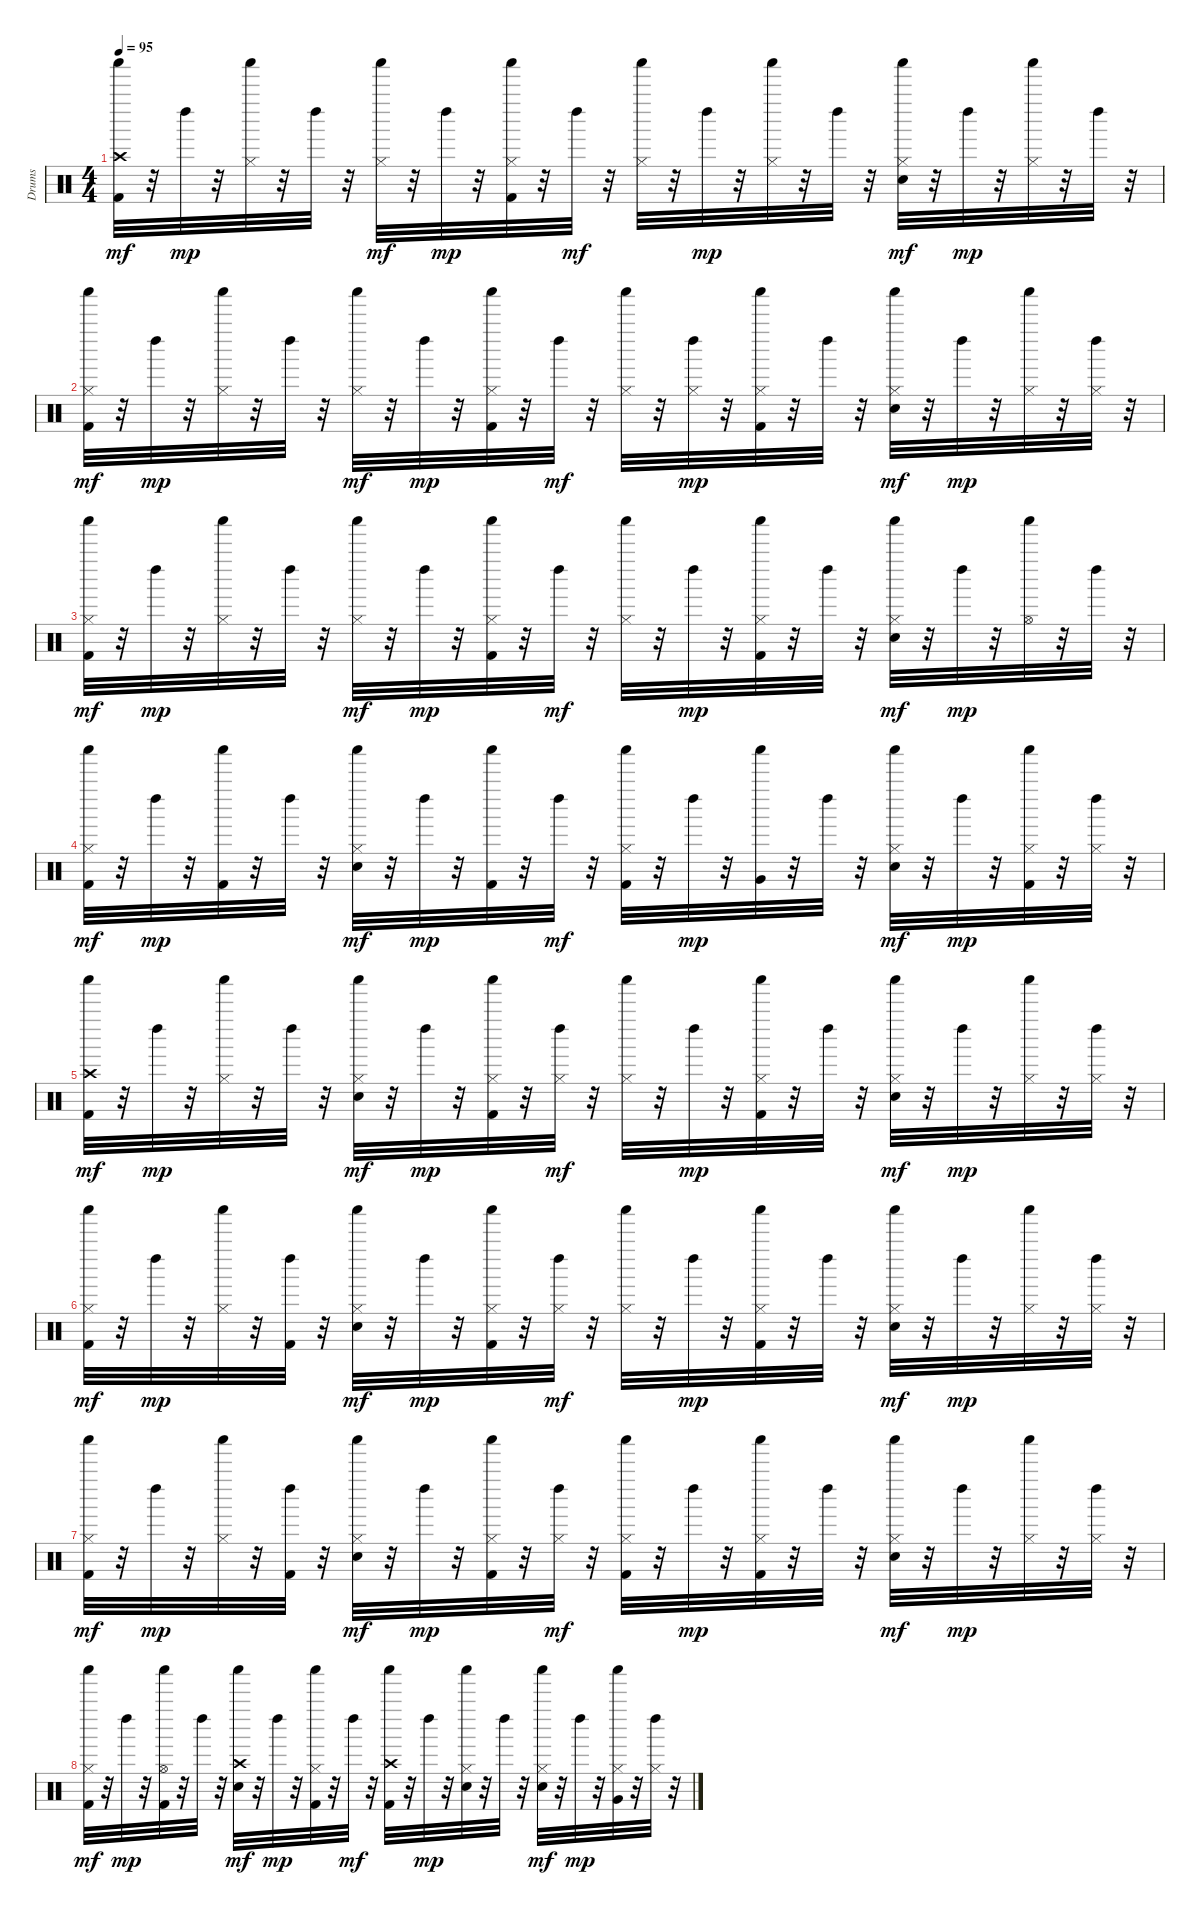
\track ("Drums" "Drums") {instrument percussion}
\staff {score}
\articulation defaults
\ts (4 4)
\tempo 95
\clef neutral
\ks c
("Kick (hit) 2" "Crash high (hit)" "Shaker (hit)").32{dy mf} r.32 "Left Maraca (hit)".32{dy mp} r.32 ("Hi-Hat (closed)" "Shaker (hit)").32 r.32 "Left Maraca (hit)".32 r.32 ("Hi-Hat (closed)" "Shaker (hit)").32{dy mf} r.32 "Left Maraca (hit)".32{dy mp} r.32 ("Kick (hit) 2" "Hi-Hat (closed)" "Shaker (hit)").32 r.32 "Left Maraca (hit)".32{dy mf} r.32 ("Hi-Hat (closed)" "Shaker (hit)").32 r.32 "Left Maraca (hit)".32{dy mp} r.32 ("Hi-Hat (closed)" "Shaker (hit)").32 r.32 "Left Maraca (hit)".32 r.32 ("Electric Snare (hit)" "Hi-Hat (closed)" "Shaker (hit)").32{dy mf} r.32 "Left Maraca (hit)".32{dy mp} r.32 ("Hi-Hat (closed)" "Shaker (hit)").32 r.32 "Left Maraca (hit)".32 r.32 |
("Kick (hit) 2" "Hi-Hat (closed)" "Shaker (hit)").32{dy mf} r.32 "Left Maraca (hit)".32{dy mp} r.32 ("Hi-Hat (closed)" "Shaker (hit)").32 r.32 "Left Maraca (hit)".32 r.32 ("Hi-Hat (closed)" "Shaker (hit)").32{dy mf} r.32 "Left Maraca (hit)".32{dy mp} r.32 ("Kick (hit) 2" "Hi-Hat (closed)" "Shaker (hit)").32 r.32 "Left Maraca (hit)".32{dy mf} r.32 ("Hi-Hat (closed)" "Shaker (hit)").32 r.32 ("Hi-Hat (closed)" "Left Maraca (hit)").32{dy mp} r.32 ("Kick (hit) 2" "Hi-Hat (closed)" "Shaker (hit)").32 r.32 "Left Maraca (hit)".32 r.32 ("Electric Snare (hit)" "Hi-Hat (closed)" "Shaker (hit)").32{dy mf} r.32 "Left Maraca (hit)".32{dy mp} r.32 ("Hi-Hat (closed)" "Shaker (hit)").32 r.32 ("Hi-Hat (closed)" "Left Maraca (hit)").32 r.32 |
("Kick (hit) 2" "Hi-Hat (closed)" "Shaker (hit)").32{dy mf} r.32 "Left Maraca (hit)".32{dy mp} r.32 ("Hi-Hat (closed)" "Shaker (hit)").32 r.32 "Left Maraca (hit)".32 r.32 ("Hi-Hat (closed)" "Shaker (hit)").32{dy mf} r.32 "Left Maraca (hit)".32{dy mp} r.32 ("Kick (hit) 2" "Hi-Hat (closed)" "Shaker (hit)").32 r.32 "Left Maraca (hit)".32{dy mf} r.32 ("Hi-Hat (closed)" "Shaker (hit)").32 r.32 "Left Maraca (hit)".32{dy mp} r.32 ("Kick (hit) 2" "Hi-Hat (closed)" "Shaker (hit)").32 r.32 "Left Maraca (hit)".32 r.32 ("Electric Snare (hit)" "Hi-Hat (closed)" "Shaker (hit)").32{dy mf} r.32 "Left Maraca (hit)".32{dy mp} r.32 ("Hi-Hat (open)" "Shaker (hit)").32 r.32 "Left Maraca (hit)".32 r.32 |
("Kick (hit) 2" "Hi-Hat (closed)" "Shaker (hit)").32{dy mf} r.32 "Left Maraca (hit)".32{dy mp} r.32 ("Kick (hit) 2" "Shaker (hit)").32 r.32 "Left Maraca (hit)".32 r.32 ("Electric Snare (hit)" "Hi-Hat (closed)" "Shaker (hit)").32{dy mf} r.32 "Left Maraca (hit)".32{dy mp} r.32 ("Kick (hit) 2" "Shaker (hit)").32 r.32 "Left Maraca (hit)".32{dy mf} r.32 ("Kick (hit) 2" "Hi-Hat (closed)" "Shaker (hit)").32 r.32 "Left Maraca (hit)".32{dy mp} r.32 ("Very Low Tom (hit)" "Shaker (hit)").32 r.32 "Left Maraca (hit)".32 r.32 ("Electric Snare (hit)" "Hi-Hat (closed)" "Shaker (hit)").32{dy mf} r.32 "Left Maraca (hit)".32{dy mp} r.32 ("Kick (hit) 2" "Hi-Hat (closed)" "Shaker (hit)").32 r.32 ("Hi-Hat (closed)" "Left Maraca (hit)").32 r.32 |
("Kick (hit) 2" "Crash high (hit)" "Shaker (hit)").32{dy mf} r.32 "Left Maraca (hit)".32{dy mp} r.32 ("Hi-Hat (closed)" "Shaker (hit)").32 r.32 "Left Maraca (hit)".32 r.32 ("Electric Snare (hit)" "Hi-Hat (closed)" "Shaker (hit)").32{dy mf} r.32 "Left Maraca (hit)".32{dy mp} r.32 ("Kick (hit) 2" "Hi-Hat (closed)" "Shaker (hit)").32 r.32 ("Hi-Hat (closed)" "Left Maraca (hit)").32{dy mf} r.32 ("Hi-Hat (closed)" "Shaker (hit)").32 r.32 "Left Maraca (hit)".32{dy mp} r.32 ("Kick (hit) 2" "Hi-Hat (closed)" "Shaker (hit)").32 r.32 "Left Maraca (hit)".32 r.32 ("Electric Snare (hit)" "Hi-Hat (closed)" "Shaker (hit)").32{dy mf} r.32 "Left Maraca (hit)".32{dy mp} r.32 ("Hi-Hat (closed)" "Shaker (hit)").32 r.32 ("Hi-Hat (closed)" "Left Maraca (hit)").32 r.32 |
("Kick (hit) 2" "Hi-Hat (closed)" "Shaker (hit)").32{dy mf} r.32 "Left Maraca (hit)".32{dy mp} r.32 ("Hi-Hat (closed)" "Shaker (hit)").32 r.32 ("Kick (hit) 2" "Left Maraca (hit)").32 r.32 ("Electric Snare (hit)" "Hi-Hat (closed)" "Shaker (hit)").32{dy mf} r.32 "Left Maraca (hit)".32{dy mp} r.32 ("Kick (hit) 2" "Hi-Hat (closed)" "Shaker (hit)").32 r.32 ("Hi-Hat (closed)" "Left Maraca (hit)").32{dy mf} r.32 ("Hi-Hat (closed)" "Shaker (hit)").32 r.32 "Left Maraca (hit)".32{dy mp} r.32 ("Kick (hit) 2" "Hi-Hat (closed)" "Shaker (hit)").32 r.32 "Left Maraca (hit)".32 r.32 ("Electric Snare (hit)" "Hi-Hat (closed)" "Shaker (hit)").32{dy mf} r.32 "Left Maraca (hit)".32{dy mp} r.32 ("Hi-Hat (closed)" "Shaker (hit)").32 r.32 ("Hi-Hat (closed)" "Left Maraca (hit)").32 r.32 |
("Kick (hit) 2" "Hi-Hat (closed)" "Shaker (hit)").32{dy mf} r.32 "Left Maraca (hit)".32{dy mp} r.32 ("Hi-Hat (closed)" "Shaker (hit)").32 r.32 ("Kick (hit) 2" "Left Maraca (hit)").32 r.32 ("Electric Snare (hit)" "Hi-Hat (closed)" "Shaker (hit)").32{dy mf} r.32 "Left Maraca (hit)".32{dy mp} r.32 ("Kick (hit) 2" "Hi-Hat (closed)" "Shaker (hit)").32 r.32 ("Hi-Hat (closed)" "Left Maraca (hit)").32{dy mf} r.32 ("Kick (hit) 2" "Hi-Hat (closed)" "Shaker (hit)").32 r.32 "Left Maraca (hit)".32{dy mp} r.32 ("Kick (hit) 2" "Hi-Hat (closed)" "Shaker (hit)").32 r.32 "Left Maraca (hit)".32 r.32 ("Electric Snare (hit)" "Hi-Hat (closed)" "Shaker (hit)").32{dy mf} r.32 "Left Maraca (hit)".32{dy mp} r.32 ("Hi-Hat (closed)" "Shaker (hit)").32 r.32 ("Hi-Hat (closed)" "Left Maraca (hit)").32 r.32 |
("Kick (hit) 2" "Hi-Hat (closed)" "Shaker (hit)").32{dy mf} r.32 "Left Maraca (hit)".32{dy mp} r.32 ("Kick (hit) 2" "Hi-Hat (open)" "Shaker (hit)").32 r.32 "Left Maraca (hit)".32 r.32 ("Electric Snare (hit)" "Crash high (hit)" "Shaker (hit)").32{dy mf} r.32 "Left Maraca (hit)".32{dy mp} r.32 ("Kick (hit) 2" "Hi-Hat (closed)" "Shaker (hit)").32 r.32 "Left Maraca (hit)".32{dy mf} r.32 ("Kick (hit) 2" "Crash high (hit)" "Shaker (hit)").32 r.32 "Left Maraca (hit)".32{dy mp} r.32 ("Electric Snare (hit)" "Hi-Hat (closed)" "Shaker (hit)").32 r.32 "Left Maraca (hit)".32 r.32 ("Electric Snare (hit)" "Hi-Hat (closed)" "Shaker (hit)").32{dy mf} r.32 "Left Maraca (hit)".32{dy mp} r.32 ("Very Low Tom (hit)" "Hi-Hat (closed)" "Shaker (hit)").32 r.32 ("Hi-Hat (closed)" "Left Maraca (hit)").32 r.32
